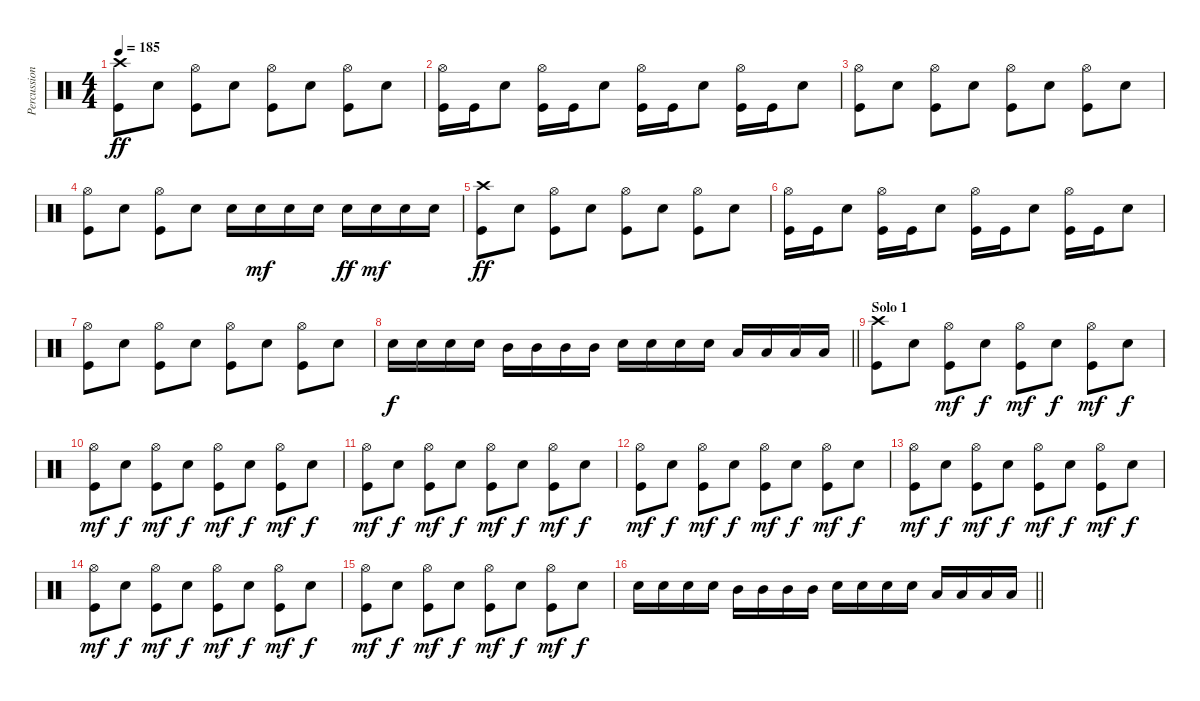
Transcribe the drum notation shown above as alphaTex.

\track ("Percussion" "Percussion") {instrument percussion}
\staff {score}
\articulation defaults
\ts (4 4)
\tempo 185
\clef neutral
\ks c
("Kick (hit)" "Crash high (hit)").8{dy ff} "Snare (hit) 2".8 ("Hi-Hat (open)" "Kick (hit)").8 "Snare (hit) 2".8 ("Kick (hit)" "Hi-Hat (open)").8 "Snare (hit) 2".8 ("Hi-Hat (open)" "Kick (hit)").8 "Snare (hit) 2".8 |
("Hi-Hat (open)" "Kick (hit)").16 "Kick (hit)".16 "Snare (hit) 2".8 ("Hi-Hat (open)" "Kick (hit)").16 "Kick (hit)".16 "Snare (hit) 2".8 ("Hi-Hat (open)" "Kick (hit)").16 "Kick (hit)".16 "Snare (hit) 2".8 ("Hi-Hat (open)" "Kick (hit)").16 "Kick (hit)".16 "Snare (hit) 2".8 |
("Kick (hit)" "Hi-Hat (open)").8 "Snare (hit) 2".8 ("Hi-Hat (open)" "Kick (hit)").8 "Snare (hit) 2".8 ("Kick (hit)" "Hi-Hat (open)").8 "Snare (hit) 2".8 ("Hi-Hat (open)" "Kick (hit)").8 "Snare (hit) 2".8 |
("Kick (hit)" "Hi-Hat (open)").8 "Snare (hit) 2".8 ("Hi-Hat (open)" "Kick (hit)").8 "Snare (hit) 2".8 "Snare (hit) 2".16 "Snare (hit) 2".16{dy mf} "Snare (hit) 2".16 "Snare (hit) 2".16 "Snare (hit) 2".16{dy ff} "Snare (hit) 2".16{dy mf} "Snare (hit) 2".16 "Snare (hit) 2".16 |
("Kick (hit)" "Crash high (hit)").8{dy ff} "Snare (hit) 2".8 ("Hi-Hat (open)" "Kick (hit)").8 "Snare (hit) 2".8 ("Kick (hit)" "Hi-Hat (open)").8 "Snare (hit) 2".8 ("Hi-Hat (open)" "Kick (hit)").8 "Snare (hit) 2".8 |
("Hi-Hat (open)" "Kick (hit)").16 "Kick (hit)".16 "Snare (hit) 2".8 ("Hi-Hat (open)" "Kick (hit)").16 "Kick (hit)".16 "Snare (hit) 2".8 ("Hi-Hat (open)" "Kick (hit)").16 "Kick (hit)".16 "Snare (hit) 2".8 ("Hi-Hat (open)" "Kick (hit)").16 "Kick (hit)".16 "Snare (hit) 2".8 |
("Kick (hit)" "Hi-Hat (open)").8 "Snare (hit) 2".8 ("Hi-Hat (open)" "Kick (hit)").8 "Snare (hit) 2".8 ("Kick (hit)" "Hi-Hat (open)").8 "Snare (hit) 2".8 ("Hi-Hat (open)" "Kick (hit)").8 "Snare (hit) 2".8 |
\barLineRight lightlight "Snare (hit) 2".16{dy f} "Snare (hit) 2".16 "Snare (hit) 2".16 "Snare (hit) 2".16 "Mid Tom (hit)".16 "Mid Tom (hit)".16 "Mid Tom (hit)".16 "Mid Tom (hit)".16 "Snare (hit) 2".16 "Snare (hit) 2".16 "Snare (hit) 2".16 "Snare (hit) 2".16 "Low Tom (hit)".16 "Low Tom (hit)".16 "Low Tom (hit)".16 "Low Tom (hit)".16
|
\section ("" "Solo 1")
("Kick (hit)" "Crash high (hit)").8 "Snare (hit) 2".8 ("Hi-Hat (open)" "Kick (hit)").8{dy mf} "Snare (hit) 2".8{dy f} ("Kick (hit)" "Hi-Hat (open)").8{dy mf} "Snare (hit) 2".8{dy f} ("Hi-Hat (open)" "Kick (hit)").8{dy mf} "Snare (hit) 2".8{dy f} |
("Kick (hit)" "Hi-Hat (open)").8{dy mf} "Snare (hit) 2".8{dy f} ("Hi-Hat (open)" "Kick (hit)").8{dy mf} "Snare (hit) 2".8{dy f} ("Kick (hit)" "Hi-Hat (open)").8{dy mf} "Snare (hit) 2".8{dy f} ("Hi-Hat (open)" "Kick (hit)").8{dy mf} "Snare (hit) 2".8{dy f} |
("Kick (hit)" "Hi-Hat (open)").8{dy mf} "Snare (hit) 2".8{dy f} ("Hi-Hat (open)" "Kick (hit)").8{dy mf} "Snare (hit) 2".8{dy f} ("Kick (hit)" "Hi-Hat (open)").8{dy mf} "Snare (hit) 2".8{dy f} ("Hi-Hat (open)" "Kick (hit)").8{dy mf} "Snare (hit) 2".8{dy f} |
("Kick (hit)" "Hi-Hat (open)").8{dy mf} "Snare (hit) 2".8{dy f} ("Hi-Hat (open)" "Kick (hit)").8{dy mf} "Snare (hit) 2".8{dy f} ("Kick (hit)" "Hi-Hat (open)").8{dy mf} "Snare (hit) 2".8{dy f} ("Hi-Hat (open)" "Kick (hit)").8{dy mf} "Snare (hit) 2".8{dy f} |
("Kick (hit)" "Hi-Hat (open)").8{dy mf} "Snare (hit) 2".8{dy f} ("Hi-Hat (open)" "Kick (hit)").8{dy mf} "Snare (hit) 2".8{dy f} ("Kick (hit)" "Hi-Hat (open)").8{dy mf} "Snare (hit) 2".8{dy f} ("Hi-Hat (open)" "Kick (hit)").8{dy mf} "Snare (hit) 2".8{dy f} |
("Kick (hit)" "Hi-Hat (open)").8{dy mf} "Snare (hit) 2".8{dy f} ("Hi-Hat (open)" "Kick (hit)").8{dy mf} "Snare (hit) 2".8{dy f} ("Kick (hit)" "Hi-Hat (open)").8{dy mf} "Snare (hit) 2".8{dy f} ("Hi-Hat (open)" "Kick (hit)").8{dy mf} "Snare (hit) 2".8{dy f} |
("Kick (hit)" "Hi-Hat (open)").8{dy mf} "Snare (hit) 2".8{dy f} ("Hi-Hat (open)" "Kick (hit)").8{dy mf} "Snare (hit) 2".8{dy f} ("Kick (hit)" "Hi-Hat (open)").8{dy mf} "Snare (hit) 2".8{dy f} ("Hi-Hat (open)" "Kick (hit)").8{dy mf} "Snare (hit) 2".8{dy f} |
\barLineRight lightlight "Snare (hit) 2".16 "Snare (hit) 2".16 "Snare (hit) 2".16 "Snare (hit) 2".16 "Mid Tom (hit)".16 "Mid Tom (hit)".16 "Mid Tom (hit)".16 "Mid Tom (hit)".16 "Snare (hit) 2".16 "Snare (hit) 2".16 "Snare (hit) 2".16 "Snare (hit) 2".16 "Low Tom (hit)".16 "Low Tom (hit)".16 "Low Tom (hit)".16 "Low Tom (hit)".16
